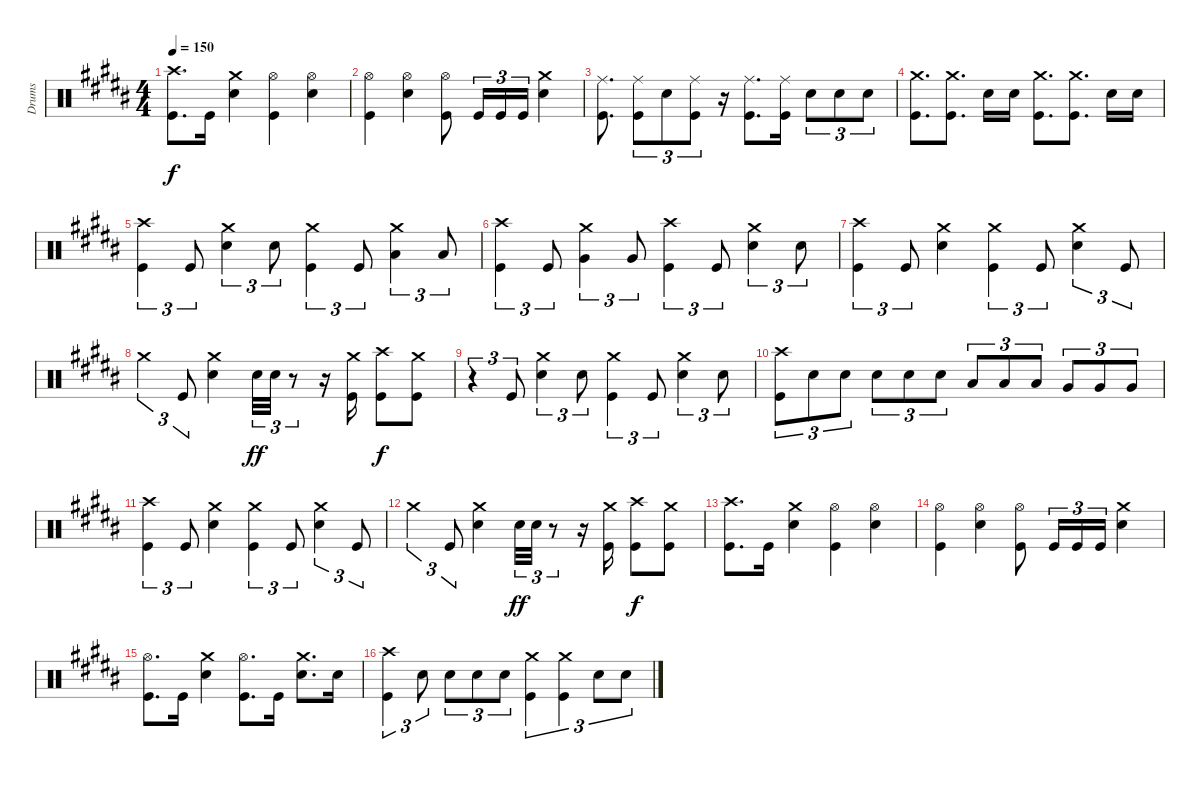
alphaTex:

\track ("Drums" "Drums") {instrument percussion}
\staff {score}
\articulation defaults
\ts (4 4)
\tempo 150
\clef neutral
\ks b
("Crash high (hit)" "Kick (hit)").8{d dy f} "Kick (hit)".16 ("Crash medium (hit)" "Snare (hit) 2").4 ("Kick (hit)" "Hi-Hat (open)").4 ("Snare (hit) 2" "Hi-Hat (open)").4 |
\ks g#minor
("Kick (hit)" "Hi-Hat (open)").4 ("Snare (hit) 2" "Hi-Hat (open)").4 ("Kick (hit)" "Hi-Hat (open)").8 "Kick (hit)".16{tu (3 2)} "Kick (hit)".16{tu (3 2)} "Kick (hit)".16{tu (3 2)} ("Snare (hit) 2" "Crash medium (hit)").4 |
("Ride (middle)" "Kick (hit)").8{d} ("Kick (hit)" "Ride (middle)").8{tu (3 2)} "Snare (hit) 2".8{tu (3 2)} ("Kick (hit)" "Ride (middle)").8{tu (3 2)} r.16 ("Ride (middle)" "Kick (hit)").8{d} ("Kick (hit)" "Ride (middle)").16 "Snare (hit) 2".8{tu (3 2)} "Snare (hit) 2".8{tu (3 2)} "Snare (hit) 2".8{tu (3 2)} |
("Crash medium (hit)" "Kick (hit)").8{d} ("Kick (hit)" "Crash medium (hit)").8{d} "Snare (hit) 2".16 "Snare (hit) 2".16 ("Crash medium (hit)" "Kick (hit)").8{d} ("Kick (hit)" "Crash medium (hit)").8{d} "Snare (hit) 2".16 "Snare (hit) 2".16 |
\ks b
("Crash high (hit)" "Kick (hit)").4{tu (3 2)} "Kick (hit)".8{tu (3 2)} ("Snare (hit) 2" "Crash medium (hit)").4{tu (3 2)} "Snare (hit) 2".8{tu (3 2)} ("Crash medium (hit)" "Kick (hit)").4{tu (3 2)} "Kick (hit)".8{tu (3 2)} ("Crash medium (hit)" "Low Tom (hit)").4{tu (3 2)} "Low Tom (hit)".8{tu (3 2)} |
\ks g#minor
("Crash high (hit)" "Kick (hit)").4{tu (3 2)} "Kick (hit)".8{tu (3 2)} ("Very Low Tom (hit)" "Crash medium (hit)").4{tu (3 2)} "Very Low Tom (hit)".8{tu (3 2)} ("Crash high (hit)" "Kick (hit)").4{tu (3 2)} "Kick (hit)".8{tu (3 2)} ("Snare (hit) 2" "Crash medium (hit)").4{tu (3 2)} "Snare (hit) 2".8{tu (3 2)} |
("Crash high (hit)" "Kick (hit)").4{tu (3 2)} "Kick (hit)".8{tu (3 2)} ("Snare (hit) 2" "Crash medium (hit)").4 ("Crash medium (hit)" "Kick (hit)").4{tu (3 2)} "Kick (hit)".8{tu (3 2)} ("Snare (hit) 2" "Crash medium (hit)").4{tu (3 2)} "Kick (hit)".8{tu (3 2)} |
"Crash medium (hit)".4{tu (3 2)} "Kick (hit)".8{tu (3 2)} ("Snare (hit) 2" "Crash medium (hit)").4 "Snare (hit) 2".32{tu (3 2) dy ff} "Snare (hit) 2".32{tu (3 2)} r.8{tu (3 2)} r.16 ("Kick (hit)" "Crash medium (hit)").16 ("Crash high (hit)" "Kick (hit)").8{dy f} ("Crash medium (hit)" "Kick (hit)").8 |
\ks b
r.4{tu (3 2)} "Kick (hit)".8{tu (3 2)} ("Snare (hit) 2" "Crash medium (hit)").4{tu (3 2)} "Snare (hit) 2".8{tu (3 2)} ("Crash medium (hit)" "Kick (hit)").4{tu (3 2)} "Kick (hit)".8{tu (3 2)} ("Crash medium (hit)" "Snare (hit) 2").4{tu (3 2)} "Snare (hit) 2".8{tu (3 2)} |
\ks g#minor
("Crash high (hit)" "Kick (hit)").8{tu (3 2)} "Snare (hit) 2".8{tu (3 2)} "Snare (hit) 2".8{tu (3 2)} "Snare (hit) 2".8{tu (3 2)} "Snare (hit) 2".8{tu (3 2)} "Snare (hit) 2".8{tu (3 2)} "Low Tom (hit)".8{tu (3 2)} "Low Tom (hit)".8{tu (3 2)} "Low Tom (hit)".8{tu (3 2)} "Very Low Tom (hit)".8{tu (3 2)} "Very Low Tom (hit)".8{tu (3 2)} "Very Low Tom (hit)".8{tu (3 2)} |
("Crash high (hit)" "Kick (hit)").4{tu (3 2)} "Kick (hit)".8{tu (3 2)} ("Snare (hit) 2" "Crash medium (hit)").4 ("Crash medium (hit)" "Kick (hit)").4{tu (3 2)} "Kick (hit)".8{tu (3 2)} ("Snare (hit) 2" "Crash medium (hit)").4{tu (3 2)} "Kick (hit)".8{tu (3 2)} |
"Crash medium (hit)".4{tu (3 2)} "Kick (hit)".8{tu (3 2)} ("Snare (hit) 2" "Crash medium (hit)").4 "Snare (hit) 2".32{tu (3 2) dy ff} "Snare (hit) 2".32{tu (3 2)} r.8{tu (3 2)} r.16 ("Kick (hit)" "Crash medium (hit)").16 ("Crash high (hit)" "Kick (hit)").8{dy f} ("Crash medium (hit)" "Kick (hit)").8 |
\ks b
("Crash high (hit)" "Kick (hit)").8{d} "Kick (hit)".16 ("Crash medium (hit)" "Snare (hit) 2").4 ("Kick (hit)" "Hi-Hat (open)").4 ("Snare (hit) 2" "Hi-Hat (open)").4 |
\ks g#minor
("Kick (hit)" "Hi-Hat (open)").4 ("Snare (hit) 2" "Hi-Hat (open)").4 ("Kick (hit)" "Hi-Hat (open)").8 "Kick (hit)".16{tu (3 2)} "Kick (hit)".16{tu (3 2)} "Kick (hit)".16{tu (3 2)} ("Snare (hit) 2" "Crash medium (hit)").4 |
("Hi-Hat (open)" "Kick (hit)").8{d} "Kick (hit)".16 ("Crash medium (hit)" "Snare (hit) 2").4 ("Hi-Hat (open)" "Kick (hit)").8{d} "Kick (hit)".16 ("Crash medium (hit)" "Snare (hit) 2").8{d} "Snare (hit) 2".16 |
("Crash high (hit)" "Kick (hit)").4{tu (3 2)} "Snare (hit) 2".8{tu (3 2)} "Snare (hit) 2".8{tu (3 2)} "Snare (hit) 2".8{tu (3 2)} "Snare (hit) 2".8{tu (3 2)} ("Crash medium (hit)" "Kick (hit)").4{tu (3 2)} ("Crash medium (hit)" "Kick (hit)").4{tu (3 2)} "Snare (hit) 2".8{tu (3 2)} "Snare (hit) 2".8{tu (3 2)}
